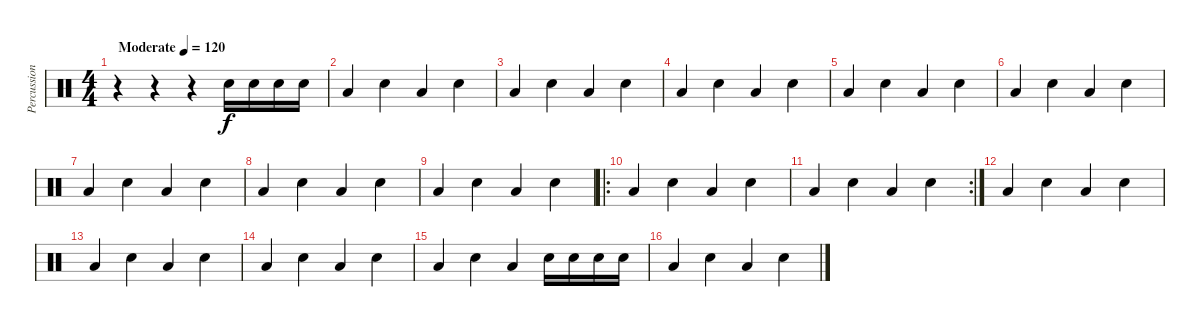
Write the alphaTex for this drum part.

\track ("Percussion" "Percussion") {instrument percussion}
\staff {score}
\articulation defaults
\ts (4 4)
\tempo (120 "Moderate")
\clef neutral
\ks c
r.4{dy f} r.4 r.4 "Electric Snare (hit)".16 "Electric Snare (hit)".16 "Electric Snare (hit)".16 "Electric Snare (hit)".16 |
"Low Floor Tom (hit)".4 "Electric Snare (hit)".4 "Low Floor Tom (hit)".4 "Electric Snare (hit)".4 |
"Low Floor Tom (hit)".4 "Electric Snare (hit)".4 "Low Floor Tom (hit)".4 "Electric Snare (hit)".4 |
"Low Floor Tom (hit)".4 "Electric Snare (hit)".4 "Low Floor Tom (hit)".4 "Electric Snare (hit)".4 |
"Low Floor Tom (hit)".4 "Electric Snare (hit)".4 "Low Floor Tom (hit)".4 "Electric Snare (hit)".4 |
"Low Floor Tom (hit)".4 "Electric Snare (hit)".4 "Low Floor Tom (hit)".4 "Electric Snare (hit)".4 |
"Low Floor Tom (hit)".4 "Electric Snare (hit)".4 "Low Floor Tom (hit)".4 "Electric Snare (hit)".4 |
"Low Floor Tom (hit)".4 "Electric Snare (hit)".4 "Low Floor Tom (hit)".4 "Electric Snare (hit)".4 |
"Low Floor Tom (hit)".4 "Electric Snare (hit)".4 "Low Floor Tom (hit)".4 "Electric Snare (hit)".4 |
\ro "Low Floor Tom (hit)".4 "Electric Snare (hit)".4 "Low Floor Tom (hit)".4 "Electric Snare (hit)".4
|
\rc 2 "Low Floor Tom (hit)".4 "Electric Snare (hit)".4 "Low Floor Tom (hit)".4 "Electric Snare (hit)".4
|
"Low Floor Tom (hit)".4 "Electric Snare (hit)".4 "Low Floor Tom (hit)".4 "Electric Snare (hit)".4 |
"Low Floor Tom (hit)".4 "Electric Snare (hit)".4 "Low Floor Tom (hit)".4 "Electric Snare (hit)".4 |
"Low Floor Tom (hit)".4 "Electric Snare (hit)".4 "Low Floor Tom (hit)".4 "Electric Snare (hit)".4 |
"Low Floor Tom (hit)".4 "Electric Snare (hit)".4 "Low Floor Tom (hit)".4 "Electric Snare (hit)".16 "Electric Snare (hit)".16 "Electric Snare (hit)".16 "Electric Snare (hit)".16 |
"Low Floor Tom (hit)".4 "Electric Snare (hit)".4 "Low Floor Tom (hit)".4 "Electric Snare (hit)".4
